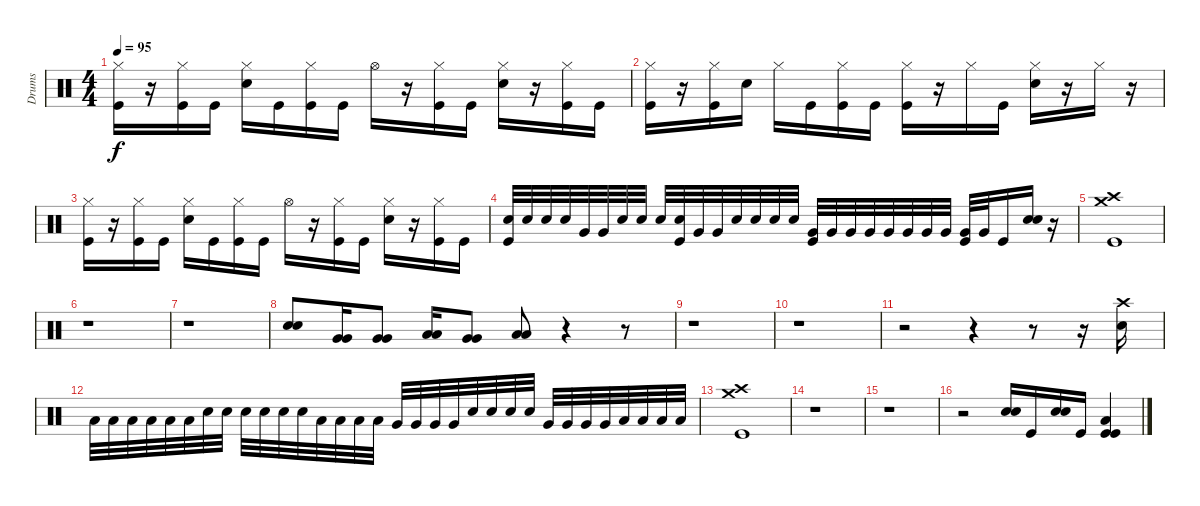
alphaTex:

\track ("Drums" "Drums") {instrument percussion}
\staff {score}
\articulation defaults
\ts (4 4)
\tempo 95
\clef neutral
\ks c
("Hi-Hat (closed)" "Kick (hit)").16{dy f} r.16 ("Hi-Hat (closed)" "Kick (hit)").16 "Kick (hit)".16 ("Hi-Hat (closed)" "Snare (hit) 2").16 "Kick (hit)".16 ("Hi-Hat (closed)" "Kick (hit)").16 "Kick (hit)".16 "Hi-Hat (open)".16 r.16 ("Hi-Hat (closed)" "Kick (hit)").16 "Kick (hit)".16 ("Hi-Hat (closed)" "Snare (hit) 2").16 r.16 ("Hi-Hat (closed)" "Kick (hit)").16 "Kick (hit)".16 |
("Hi-Hat (closed)" "Kick (hit)").16 r.16 ("Hi-Hat (closed)" "Kick (hit)").16 "Snare (hit) 2".16 "Hi-Hat (closed)".16 "Kick (hit)".16 ("Hi-Hat (closed)" "Kick (hit)").16 "Kick (hit)".16 ("Hi-Hat (closed)" "Kick (hit)").16 r.16 "Hi-Hat (closed)".16 "Kick (hit)".16 ("Hi-Hat (closed)" "Snare (hit) 2").16 r.16 "Hi-Hat (closed)".16 r.16 |
("Hi-Hat (closed)" "Kick (hit)").16 r.16 ("Hi-Hat (closed)" "Kick (hit)").16 "Kick (hit)".16 ("Hi-Hat (closed)" "Snare (hit) 2").16 "Kick (hit)".16 ("Hi-Hat (closed)" "Kick (hit)").16 "Kick (hit)".16 "Hi-Hat (open)".16 r.16 ("Hi-Hat (closed)" "Kick (hit)").16 "Kick (hit)".16 ("Hi-Hat (closed)" "Snare (hit) 2").16 r.16 ("Hi-Hat (closed)" "Kick (hit)").16 "Kick (hit)".16 |
("Snare (hit) 2" "Kick (hit)").32 "Snare (hit) 2".32 "Snare (hit) 2".32 "Snare (hit) 2".32 "Very Low Tom (hit)".32 "Very Low Tom (hit)".32 "Snare (hit) 2".32 "Snare (hit) 2".32 "Snare (hit) 2".32 ("Snare (hit) 2" "Kick (hit)").32 "Very Low Tom (hit)".32 "Very Low Tom (hit)".32 "Snare (hit) 2".32 "Snare (hit) 2".32 "Snare (hit) 2".32 "Snare (hit) 2".32 ("Very Low Tom (hit)" "Kick (hit)").32 "Very Low Tom (hit)".32 "Very Low Tom (hit)".32 "Very Low Tom (hit)".32 "Very Low Tom (hit)".32 "Very Low Tom (hit)".32 "Very Low Tom (hit)".32 "Very Low Tom (hit)".32 ("Very Low Tom (hit)" "Kick (hit)").32 "Very Low Tom (hit)".32 "Kick (hit)".16 ("Snare (hit) 2" "Snare (hit) 2").16 r.16 |
("Crash medium (hit)" "Crash high (hit)" "Kick (hit)").1 |
r.1 |
r.1 |
("Snare (hit) 2" "Snare (hit) 2").8 ("Very Low Tom (hit)" "Very Low Tom (hit)").16 ("Very Low Tom (hit)" "Very Low Tom (hit)").8 ("Low Floor Tom (hit)" "Low Floor Tom (hit)").16 ("Very Low Tom (hit)" "Very Low Tom (hit)").8 ("Low Floor Tom (hit)" "Low Floor Tom (hit)").8 r.4 r.8 |
r.1 |
r.1 |
r.2 r.4 r.8 r.16 ("Crash high (hit)" "Snare (hit) 2").16 |
"Low Tom (hit)".32 "Low Tom (hit)".32 "Low Tom (hit)".32 "Low Tom (hit)".32 "Low Tom (hit)".32 "Low Tom (hit)".32 "Snare (hit) 2".32 "Snare (hit) 2".32 "Snare (hit) 2".32 "Snare (hit) 2".32 "Snare (hit) 2".32 "Snare (hit) 2".32 "Low Tom (hit)".32 "Low Tom (hit)".32 "Low Tom (hit)".32 "Low Tom (hit)".32 "Very Low Tom (hit)".32 "Very Low Tom (hit)".32 "Very Low Tom (hit)".32 "Very Low Tom (hit)".32 "Snare (hit) 2".32 "Snare (hit) 2".32 "Snare (hit) 2".32 "Snare (hit) 2".32 "Very Low Tom (hit)".32 "Very Low Tom (hit)".32 "Very Low Tom (hit)".32 "Very Low Tom (hit)".32 "Low Floor Tom (hit)".32 "Low Floor Tom (hit)".32 "Low Floor Tom (hit)".32 "Low Floor Tom (hit)".32 |
("Crash medium (hit)" "Crash high (hit)" "Kick (hit)").1 |
r.1 |
r.1 |
r.2 ("Snare (hit) 2" "Snare (hit) 2").16 "Kick (hit)".16 ("Snare (hit) 2" "Snare (hit) 2").16 "Kick (hit)".16 ("Low Tom (hit)" "Kick (hit)" "Kick (hit)").4
